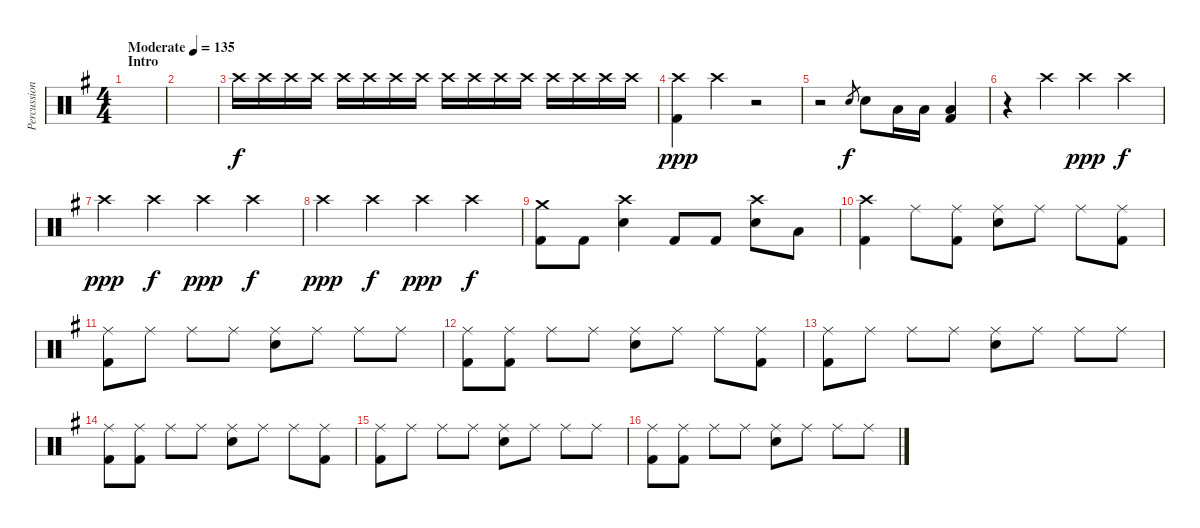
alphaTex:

\track ("Percussion" "Percussion") {instrument percussion}
\staff {score}
\articulation defaults
\ts (4 4)
\section ("" "Intro")
\tempo (135 "Moderate")
\clef neutral
\ks eminor
|
|
"Crash high (hit)".16{volume 13} "Crash high (hit)".16 "Crash high (hit)".16 "Crash high (hit)".16 "Crash high (hit)".16 "Crash high (hit)".16 "Crash high (hit)".16 "Crash high (hit)".16 "Crash high (hit)".16 "Crash high (hit)".16 "Crash high (hit)".16 "Crash high (hit)".16 "Crash high (hit)".16 "Crash high (hit)".16 "Crash high (hit)".16 "Crash high (hit)".16 |
("Crash high (hit)" "Kick (hit) 2").4{dy ppp} "Crash high (hit)".4 r.2 |
r.2 "Snare (hit) 2".8{gr dy f} "Snare (hit) 2".8 "Low Tom (hit)".16 "Low Tom (hit)".16 ("Low Tom (hit)" "Kick (hit) 2").4 |
r.4 "Crash high (hit)".4 "Crash high (hit)".4{dy ppp} "Crash high (hit)".4{dy f} |
"Crash high (hit)".4{dy ppp} "Crash high (hit)".4{dy f} "Crash high (hit)".4{dy ppp} "Crash high (hit)".4{dy f} |
"Crash high (hit)".4{dy ppp} "Crash high (hit)".4{dy f} "Crash high (hit)".4{dy ppp} "Crash high (hit)".4{dy f} |
("Crash medium (hit)" "Kick (hit) 2").8 "Kick (hit) 2".8 ("Crash high (hit)" "Snare (hit) 2").4 "Kick (hit) 2".8 "Kick (hit) 2".8 ("Crash high (hit)" "Snare (hit) 2").8 "Low Tom (hit)".8 |
("Crash high (hit)" "Kick (hit) 2").4 "Ride (middle)".8 ("Ride (middle)" "Kick (hit) 2").8 ("Ride (middle)" "Snare (hit) 2").8 "Ride (middle)".8 "Ride (middle)".8 ("Ride (middle)" "Kick (hit) 2").8 |
("Ride (middle)" "Kick (hit) 2").8 "Ride (middle)".8 "Ride (middle)".8 "Ride (middle)".8 ("Ride (middle)" "Snare (hit) 2").8 "Ride (middle)".8 "Ride (middle)".8 "Ride (middle)".8 |
("Ride (middle)" "Kick (hit) 2").8 ("Ride (middle)" "Kick (hit) 2").8 "Ride (middle)".8 "Ride (middle)".8 ("Ride (middle)" "Snare (hit) 2").8 "Ride (middle)".8 "Ride (middle)".8 ("Ride (middle)" "Kick (hit) 2").8 |
("Ride (middle)" "Kick (hit) 2").8 "Ride (middle)".8 "Ride (middle)".8 "Ride (middle)".8 ("Ride (middle)" "Snare (hit) 2").8 "Ride (middle)".8 "Ride (middle)".8 "Ride (middle)".8 |
("Ride (middle)" "Kick (hit) 2").8 ("Ride (middle)" "Kick (hit) 2").8 "Ride (middle)".8 "Ride (middle)".8 ("Ride (middle)" "Snare (hit) 2").8 "Ride (middle)".8 "Ride (middle)".8 ("Ride (middle)" "Kick (hit) 2").8 |
("Ride (middle)" "Kick (hit) 2").8 "Ride (middle)".8 "Ride (middle)".8 "Ride (middle)".8 ("Ride (middle)" "Snare (hit) 2").8 "Ride (middle)".8 "Ride (middle)".8 "Ride (middle)".8 |
("Ride (middle)" "Kick (hit) 2").8 ("Ride (middle)" "Kick (hit) 2").8 "Ride (middle)".8 "Ride (middle)".8 ("Ride (middle)" "Snare (hit) 2").8 "Ride (middle)".8 "Ride (middle)".8 "Ride (middle)".8
